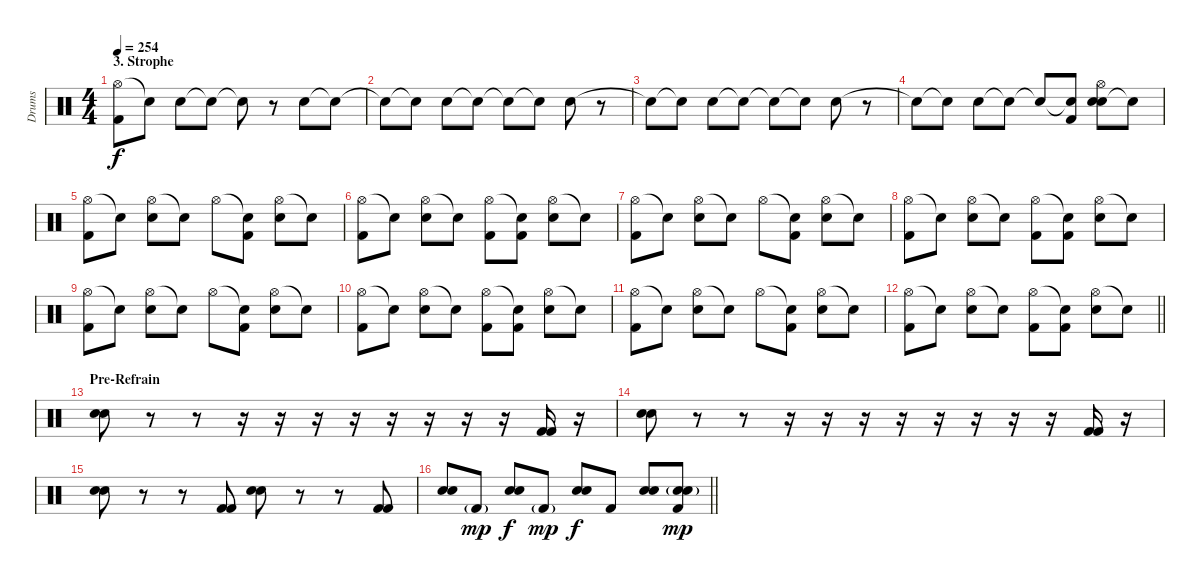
\track ("Drums" "Drums") {instrument percussion}
\staff {score}
\articulation defaults
\ts (4 4)
\section ("" "3. Strophe")
\tempo 254
\clef neutral
\ks c
("Hi-Hat (open)" "Kick (hit) 2").8{dy f} "Snare (hit)"{t}.8 "Hand Clap (hit)".8 "Snare (hit)"{t}.8 "Hand Clap (hit)"{t}.8 r.8 "Hand Clap (hit)".8 "Snare (hit)"{t}.8 |
"Snare (hit)"{t}.8 "Snare (hit)"{t}.8 "Hand Clap (hit)".8 "Snare (hit)"{t}.8 "Snare (hit)"{t}.8 "Snare (hit)"{t}.8 "Hand Clap (hit)".8 r.8 |
"Snare (hit)"{t}.8 "Snare (hit)"{t}.8 "Hand Clap (hit)".8 "Snare (hit)"{t}.8 "Snare (hit)"{t}.8 "Snare (hit)"{t}.8 "Hand Clap (hit)".8 r.8 |
"Snare (hit)"{t}.8 "Snare (hit)"{t}.8 "Hand Clap (hit)".8 "Snare (hit)"{t}.8 "Snare (hit)"{t}.8 ("Snare (hit)"{t} "Kick (hit) 2").8 ("Hand Clap (hit)" "Electric Snare (hit)" "Hi-Hat (open)").8 "Snare (hit)"{t}.8 |
("Hi-Hat (open)" "Kick (hit) 2").8 "Snare (hit)"{t}.8 ("Hi-Hat (open)" "Electric Snare (hit)").8 "Snare (hit)"{t}.8 "Hi-Hat (open)".8 ("Snare (hit)"{t} "Kick (hit) 2").8 ("Hi-Hat (open)" "Electric Snare (hit)").8 "Snare (hit)"{t}.8 |
("Hi-Hat (open)" "Kick (hit) 2").8 "Snare (hit)"{t}.8 ("Hi-Hat (open)" "Electric Snare (hit)").8 "Snare (hit)"{t}.8 ("Hi-Hat (open)" "Kick (hit) 2").8 ("Snare (hit)"{t} "Kick (hit) 2").8 ("Hi-Hat (open)" "Electric Snare (hit)").8 "Snare (hit)"{t}.8 |
("Hi-Hat (open)" "Kick (hit) 2").8 "Snare (hit)"{t}.8 ("Hi-Hat (open)" "Electric Snare (hit)").8 "Snare (hit)"{t}.8 "Hi-Hat (open)".8 ("Snare (hit)"{t} "Kick (hit) 2").8 ("Hi-Hat (open)" "Electric Snare (hit)").8 "Snare (hit)"{t}.8 |
("Hi-Hat (open)" "Kick (hit) 2").8 "Snare (hit)"{t}.8 ("Hi-Hat (open)" "Electric Snare (hit)").8 "Snare (hit)"{t}.8 ("Hi-Hat (open)" "Kick (hit) 2").8 ("Snare (hit)"{t} "Kick (hit) 2").8 ("Hi-Hat (open)" "Electric Snare (hit)").8 "Snare (hit)"{t}.8 |
("Hi-Hat (open)" "Kick (hit) 2").8 "Snare (hit)"{t}.8 ("Hi-Hat (open)" "Electric Snare (hit)").8 "Snare (hit)"{t}.8 "Hi-Hat (open)".8 ("Snare (hit)"{t} "Kick (hit) 2").8 ("Hi-Hat (open)" "Electric Snare (hit)").8 "Snare (hit)"{t}.8 |
("Hi-Hat (open)" "Kick (hit) 2").8 "Snare (hit)"{t}.8 ("Hi-Hat (open)" "Electric Snare (hit)").8 "Snare (hit)"{t}.8 ("Hi-Hat (open)" "Kick (hit) 2").8 ("Snare (hit)"{t} "Kick (hit) 2").8 ("Hi-Hat (open)" "Electric Snare (hit)").8 "Snare (hit)"{t}.8 |
("Hi-Hat (open)" "Kick (hit) 2").8 "Snare (hit)"{t}.8 ("Hi-Hat (open)" "Electric Snare (hit)").8 "Snare (hit)"{t}.8 "Hi-Hat (open)".8 ("Snare (hit)"{t} "Kick (hit) 2").8 ("Hi-Hat (open)" "Electric Snare (hit)").8 "Snare (hit)"{t}.8 |
\barLineRight lightlight
("Hi-Hat (open)" "Kick (hit) 2").8 "Snare (hit)"{t}.8 ("Hi-Hat (open)" "Electric Snare (hit)").8 "Snare (hit)"{t}.8 ("Hi-Hat (open)" "Kick (hit) 2").8 ("Snare (hit)"{t} "Kick (hit) 2").8 ("Hi-Hat (open)" "Electric Snare (hit)").8 "Snare (hit)"{t}.8 |
\section ("" "Pre-Refrain")
("Snare (hit) 2" "Electric Snare (hit)").8 r.8 r.8 r.16 r.16 r.16 r.16 r.16 r.16 r.16 r.16 ("Kick (hit) 2" "Kick (hit) 2").16 r.16 |
("Snare (hit) 2" "Electric Snare (hit)").8 r.8 r.8 r.16 r.16 r.16 r.16 r.16 r.16 r.16 r.16 ("Kick (hit) 2" "Kick (hit) 2").16 r.16 |
("Snare (hit) 2" "Electric Snare (hit)").8 r.8 r.8 ("Kick (hit) 2" "Kick (hit) 2").8 ("Snare (hit) 2" "Electric Snare (hit)").8 r.8 r.8 ("Kick (hit) 2" "Kick (hit) 2").8 |
\barLineRight lightlight
("Snare (hit) 2" "Electric Snare (hit)").8 "Kick (hit) 2"{g}.8{dy mp} ("Snare (hit) 2" "Electric Snare (hit)").8{dy f} "Kick (hit) 2"{g}.8{dy mp} ("Snare (hit) 2" "Electric Snare (hit)").8{dy f} "Kick (hit) 2".8 ("Snare (hit) 2" "Electric Snare (hit)").8 ("Snare (hit) 2"{g} "Electric Snare (hit)"{g} "Kick (hit) 2").8{dy mp}
